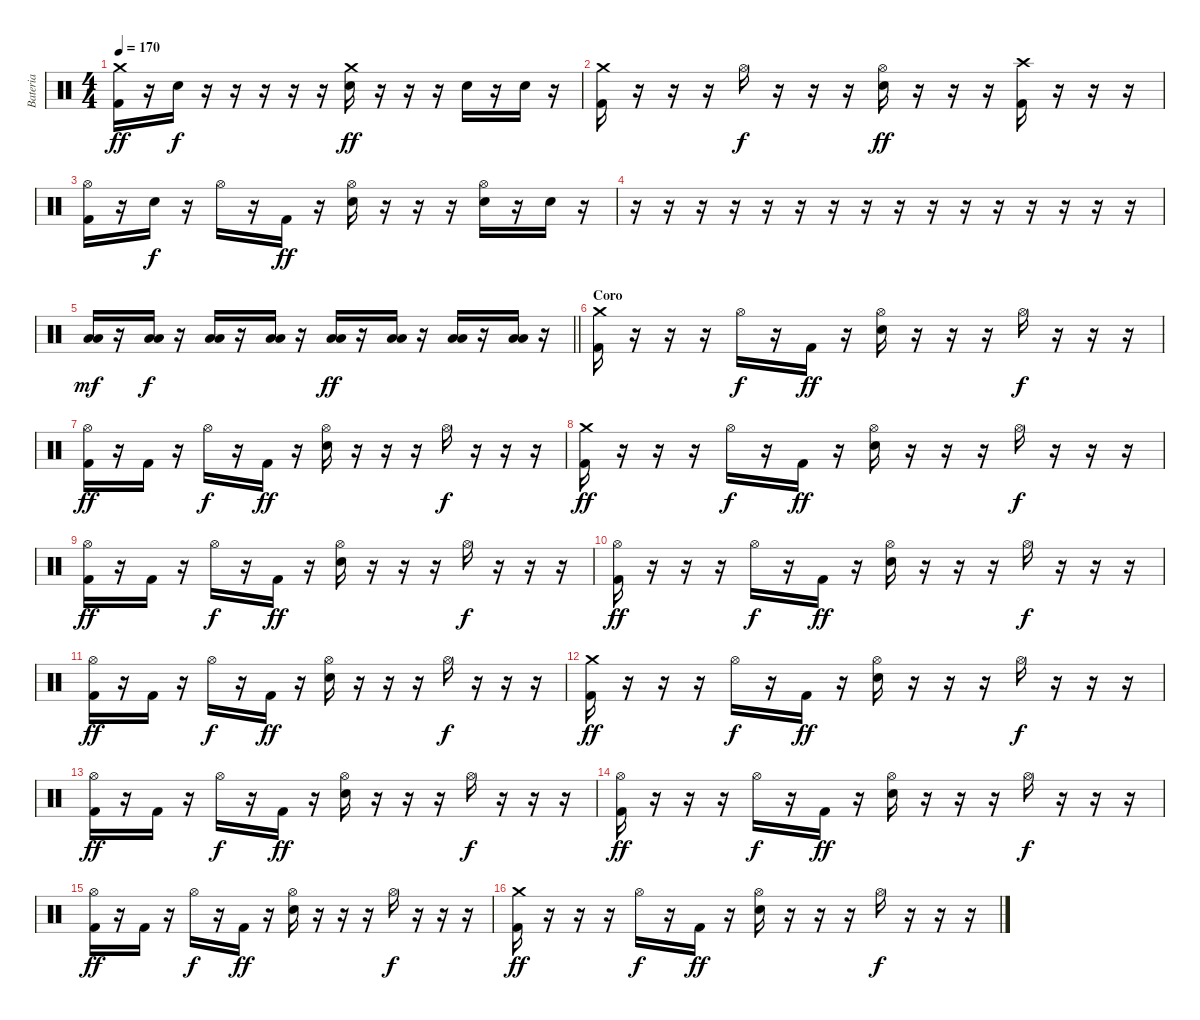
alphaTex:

\track ("Bateria" "Bateria") {instrument percussion}
\staff {score}
\articulation defaults
\ts (4 4)
\tempo 170
\clef neutral
\ks c
("Crash medium (hit)" "Kick (hit) 2").16{dy ff} r.16 "Electric Snare (hit)".16{dy f} r.16 r.16 r.16 r.16 r.16 ("Crash medium (hit)" "Electric Snare (hit)").16{dy ff} r.16 r.16 r.16 "Electric Snare (hit)".16 r.16 "Electric Snare (hit)".16 r.16 |
("Crash medium (hit)" "Kick (hit) 2").16 r.16 r.16 r.16 "Hi-Hat (open)".16{dy f} r.16 r.16 r.16 ("Hi-Hat (open)" "Electric Snare (hit)").16{dy ff} r.16 r.16 r.16 ("Crash high (hit)" "Kick (hit) 2").16 r.16 r.16 r.16 |
("Hi-Hat (open)" "Kick (hit) 2").16 r.16 "Electric Snare (hit)".16{dy f} r.16 "Hi-Hat (open)".16 r.16 "Kick (hit) 2".16{dy ff} r.16 ("Hi-Hat (open)" "Electric Snare (hit)").16 r.16 r.16 r.16 ("Hi-Hat (open)" "Electric Snare (hit)").16 r.16 "Electric Snare (hit)".16 r.16 |
r.16 r.16 r.16 r.16 r.16 r.16 r.16 r.16 r.16 r.16 r.16 r.16 r.16 r.16 r.16 r.16 |
\barLineRight lightlight
("Low Tom (hit)" "Low Floor Tom (hit)").16{dy mf} r.16 ("Low Tom (hit)" "Low Floor Tom (hit)").16{dy f} r.16 ("Low Tom (hit)" "Low Floor Tom (hit)").16 r.16 ("Low Tom (hit)" "Low Floor Tom (hit)").16 r.16 ("Low Tom (hit)" "Low Floor Tom (hit)").16{dy ff} r.16 ("Low Tom (hit)" "Low Floor Tom (hit)").16 r.16 ("Low Tom (hit)" "Low Floor Tom (hit)").16 r.16 ("Low Tom (hit)" "Low Floor Tom (hit)").16 r.16 |
\section ("" "Coro")
("Crash medium (hit)" "Kick (hit) 2").16 r.16 r.16 r.16 "Hi-Hat (open)".16{dy f} r.16 "Kick (hit) 2".16{dy ff} r.16 ("Hi-Hat (open)" "Electric Snare (hit)").16 r.16 r.16 r.16 "Hi-Hat (open)".16{dy f} r.16 r.16 r.16 |
("Hi-Hat (open)" "Kick (hit) 2").16{dy ff} r.16 "Kick (hit) 2".16 r.16 "Hi-Hat (open)".16{dy f} r.16 "Kick (hit) 2".16{dy ff} r.16 ("Hi-Hat (open)" "Electric Snare (hit)").16 r.16 r.16 r.16 "Hi-Hat (open)".16{dy f} r.16 r.16 r.16 |
("Crash medium (hit)" "Kick (hit) 2").16{dy ff} r.16 r.16 r.16 "Hi-Hat (open)".16{dy f} r.16 "Kick (hit) 2".16{dy ff} r.16 ("Hi-Hat (open)" "Electric Snare (hit)").16 r.16 r.16 r.16 "Hi-Hat (open)".16{dy f} r.16 r.16 r.16 |
("Hi-Hat (open)" "Kick (hit) 2").16{dy ff} r.16 "Kick (hit) 2".16 r.16 "Hi-Hat (open)".16{dy f} r.16 "Kick (hit) 2".16{dy ff} r.16 ("Hi-Hat (open)" "Electric Snare (hit)").16 r.16 r.16 r.16 "Hi-Hat (open)".16{dy f} r.16 r.16 r.16 |
("Hi-Hat (open)" "Kick (hit) 2").16{dy ff} r.16 r.16 r.16 "Hi-Hat (open)".16{dy f} r.16 "Kick (hit) 2".16{dy ff} r.16 ("Hi-Hat (open)" "Electric Snare (hit)").16 r.16 r.16 r.16 "Hi-Hat (open)".16{dy f} r.16 r.16 r.16 |
("Hi-Hat (open)" "Kick (hit) 2").16{dy ff} r.16 "Kick (hit) 2".16 r.16 "Hi-Hat (open)".16{dy f} r.16 "Kick (hit) 2".16{dy ff} r.16 ("Hi-Hat (open)" "Electric Snare (hit)").16 r.16 r.16 r.16 "Hi-Hat (open)".16{dy f} r.16 r.16 r.16 |
("Crash medium (hit)" "Kick (hit) 2").16{dy ff} r.16 r.16 r.16 "Hi-Hat (open)".16{dy f} r.16 "Kick (hit) 2".16{dy ff} r.16 ("Hi-Hat (open)" "Electric Snare (hit)").16 r.16 r.16 r.16 "Hi-Hat (open)".16{dy f} r.16 r.16 r.16 |
("Hi-Hat (open)" "Kick (hit) 2").16{dy ff} r.16 "Kick (hit) 2".16 r.16 "Hi-Hat (open)".16{dy f} r.16 "Kick (hit) 2".16{dy ff} r.16 ("Hi-Hat (open)" "Electric Snare (hit)").16 r.16 r.16 r.16 "Hi-Hat (open)".16{dy f} r.16 r.16 r.16 |
("Hi-Hat (open)" "Kick (hit) 2").16{dy ff} r.16 r.16 r.16 "Hi-Hat (open)".16{dy f} r.16 "Kick (hit) 2".16{dy ff} r.16 ("Hi-Hat (open)" "Electric Snare (hit)").16 r.16 r.16 r.16 "Hi-Hat (open)".16{dy f} r.16 r.16 r.16 |
("Hi-Hat (open)" "Kick (hit) 2").16{dy ff} r.16 "Kick (hit) 2".16 r.16 "Hi-Hat (open)".16{dy f} r.16 "Kick (hit) 2".16{dy ff} r.16 ("Hi-Hat (open)" "Electric Snare (hit)").16 r.16 r.16 r.16 "Hi-Hat (open)".16{dy f} r.16 r.16 r.16 |
("Crash medium (hit)" "Kick (hit) 2").16{dy ff} r.16 r.16 r.16 "Hi-Hat (open)".16{dy f} r.16 "Kick (hit) 2".16{dy ff} r.16 ("Hi-Hat (open)" "Electric Snare (hit)").16 r.16 r.16 r.16 "Hi-Hat (open)".16{dy f} r.16 r.16 r.16
